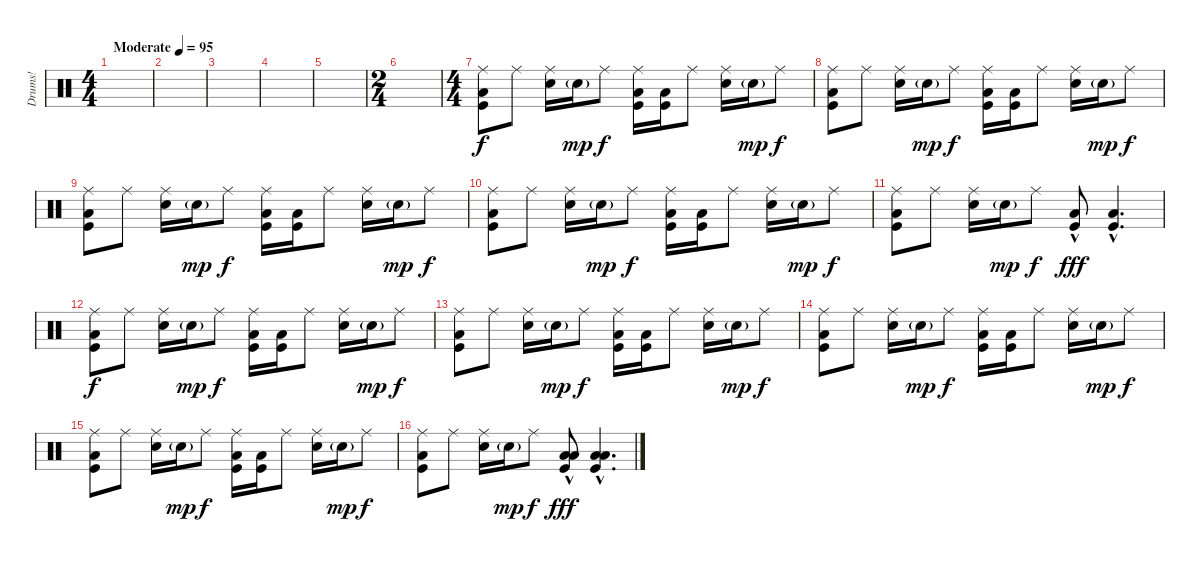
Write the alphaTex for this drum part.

\track ("Drums!" "Drums!") {instrument percussion}
\staff {score}
\articulation defaults
\ts (4 4)
\tempo (95 "Moderate")
\clef neutral
\ks c
|
|
|
|
|
\ts (2 4)
|
\ts (4 4)
("Ride (middle)" "Low Floor Tom (hit)" "Kick (hit)").8 "Ride (middle)".8 ("Ride (middle)" "Electric Snare (hit)").16 "Electric Snare (hit)"{g}.16{dy mp} "Ride (middle)".8{dy f} ("Ride (middle)" "Low Floor Tom (hit)" "Kick (hit)").16 ("Low Floor Tom (hit)" "Kick (hit)").16 "Ride (middle)".8 ("Ride (middle)" "Electric Snare (hit)").16 "Electric Snare (hit)"{g}.16{dy mp} "Ride (middle)".8{dy f} |
("Ride (middle)" "Low Floor Tom (hit)" "Kick (hit)").8 "Ride (middle)".8 ("Ride (middle)" "Electric Snare (hit)").16 "Electric Snare (hit)"{g}.16{dy mp} "Ride (middle)".8{dy f} ("Ride (middle)" "Low Floor Tom (hit)" "Kick (hit)").16 ("Low Floor Tom (hit)" "Kick (hit)").16 "Ride (middle)".8 ("Ride (middle)" "Electric Snare (hit)").16 "Electric Snare (hit)"{g}.16{dy mp} "Ride (middle)".8{dy f} |
("Ride (middle)" "Low Floor Tom (hit)" "Kick (hit)").8 "Ride (middle)".8 ("Ride (middle)" "Electric Snare (hit)").16 "Electric Snare (hit)"{g}.16{dy mp} "Ride (middle)".8{dy f} ("Ride (middle)" "Low Floor Tom (hit)" "Kick (hit)").16 ("Low Floor Tom (hit)" "Kick (hit)").16 "Ride (middle)".8 ("Ride (middle)" "Electric Snare (hit)").16 "Electric Snare (hit)"{g}.16{dy mp} "Ride (middle)".8{dy f} |
("Ride (middle)" "Low Floor Tom (hit)" "Kick (hit)").8 "Ride (middle)".8 ("Ride (middle)" "Electric Snare (hit)").16 "Electric Snare (hit)"{g}.16{dy mp} "Ride (middle)".8{dy f} ("Ride (middle)" "Low Floor Tom (hit)" "Kick (hit)").16 ("Low Floor Tom (hit)" "Kick (hit)").16 "Ride (middle)".8 ("Ride (middle)" "Electric Snare (hit)").16 "Electric Snare (hit)"{g}.16{dy mp} "Ride (middle)".8{dy f} |
("Ride (middle)" "Low Floor Tom (hit)" "Kick (hit)").8 "Ride (middle)".8 ("Ride (middle)" "Electric Snare (hit)").16 "Electric Snare (hit)"{g}.16{dy mp} "Ride (middle)".8{dy f} ("Low Floor Tom (hit)"{hac} "Kick (hit)"{hac}).8{dy fff} ("Low Floor Tom (hit)"{hac} "Kick (hit)"{hac}).4{d} |
("Ride (middle)" "Low Floor Tom (hit)" "Kick (hit)").8{dy f} "Ride (middle)".8 ("Ride (middle)" "Electric Snare (hit)").16 "Electric Snare (hit)"{g}.16{dy mp} "Ride (middle)".8{dy f} ("Ride (middle)" "Low Floor Tom (hit)" "Kick (hit)").16 ("Low Floor Tom (hit)" "Kick (hit)").16 "Ride (middle)".8 ("Ride (middle)" "Electric Snare (hit)").16 "Electric Snare (hit)"{g}.16{dy mp} "Ride (middle)".8{dy f} |
("Ride (middle)" "Low Floor Tom (hit)" "Kick (hit)").8 "Ride (middle)".8 ("Ride (middle)" "Electric Snare (hit)").16 "Electric Snare (hit)"{g}.16{dy mp} "Ride (middle)".8{dy f} ("Ride (middle)" "Low Floor Tom (hit)" "Kick (hit)").16 ("Low Floor Tom (hit)" "Kick (hit)").16 "Ride (middle)".8 ("Ride (middle)" "Electric Snare (hit)").16 "Electric Snare (hit)"{g}.16{dy mp} "Ride (middle)".8{dy f} |
("Ride (middle)" "Low Floor Tom (hit)" "Kick (hit)").8 "Ride (middle)".8 ("Ride (middle)" "Electric Snare (hit)").16 "Electric Snare (hit)"{g}.16{dy mp} "Ride (middle)".8{dy f} ("Ride (middle)" "Low Floor Tom (hit)" "Kick (hit)").16 ("Low Floor Tom (hit)" "Kick (hit)").16 "Ride (middle)".8 ("Ride (middle)" "Electric Snare (hit)").16 "Electric Snare (hit)"{g}.16{dy mp} "Ride (middle)".8{dy f} |
("Ride (middle)" "Low Floor Tom (hit)" "Kick (hit)").8 "Ride (middle)".8 ("Ride (middle)" "Electric Snare (hit)").16 "Electric Snare (hit)"{g}.16{dy mp} "Ride (middle)".8{dy f} ("Ride (middle)" "Low Floor Tom (hit)" "Kick (hit)").16 ("Low Floor Tom (hit)" "Kick (hit)").16 "Ride (middle)".8 ("Ride (middle)" "Electric Snare (hit)").16 "Electric Snare (hit)"{g}.16{dy mp} "Ride (middle)".8{dy f} |
("Ride (middle)" "Low Floor Tom (hit)" "Kick (hit)").8 "Ride (middle)".8 ("Ride (middle)" "Electric Snare (hit)").16 "Electric Snare (hit)"{g}.16{dy mp} "Ride (middle)".8{dy f} ("Low Tom (hit)" "Low Floor Tom (hit)"{hac} "Kick (hit)"{hac}).8{dy fff} ("Low Tom (hit)" "Low Floor Tom (hit)"{hac} "Kick (hit)"{hac}).4{d}
